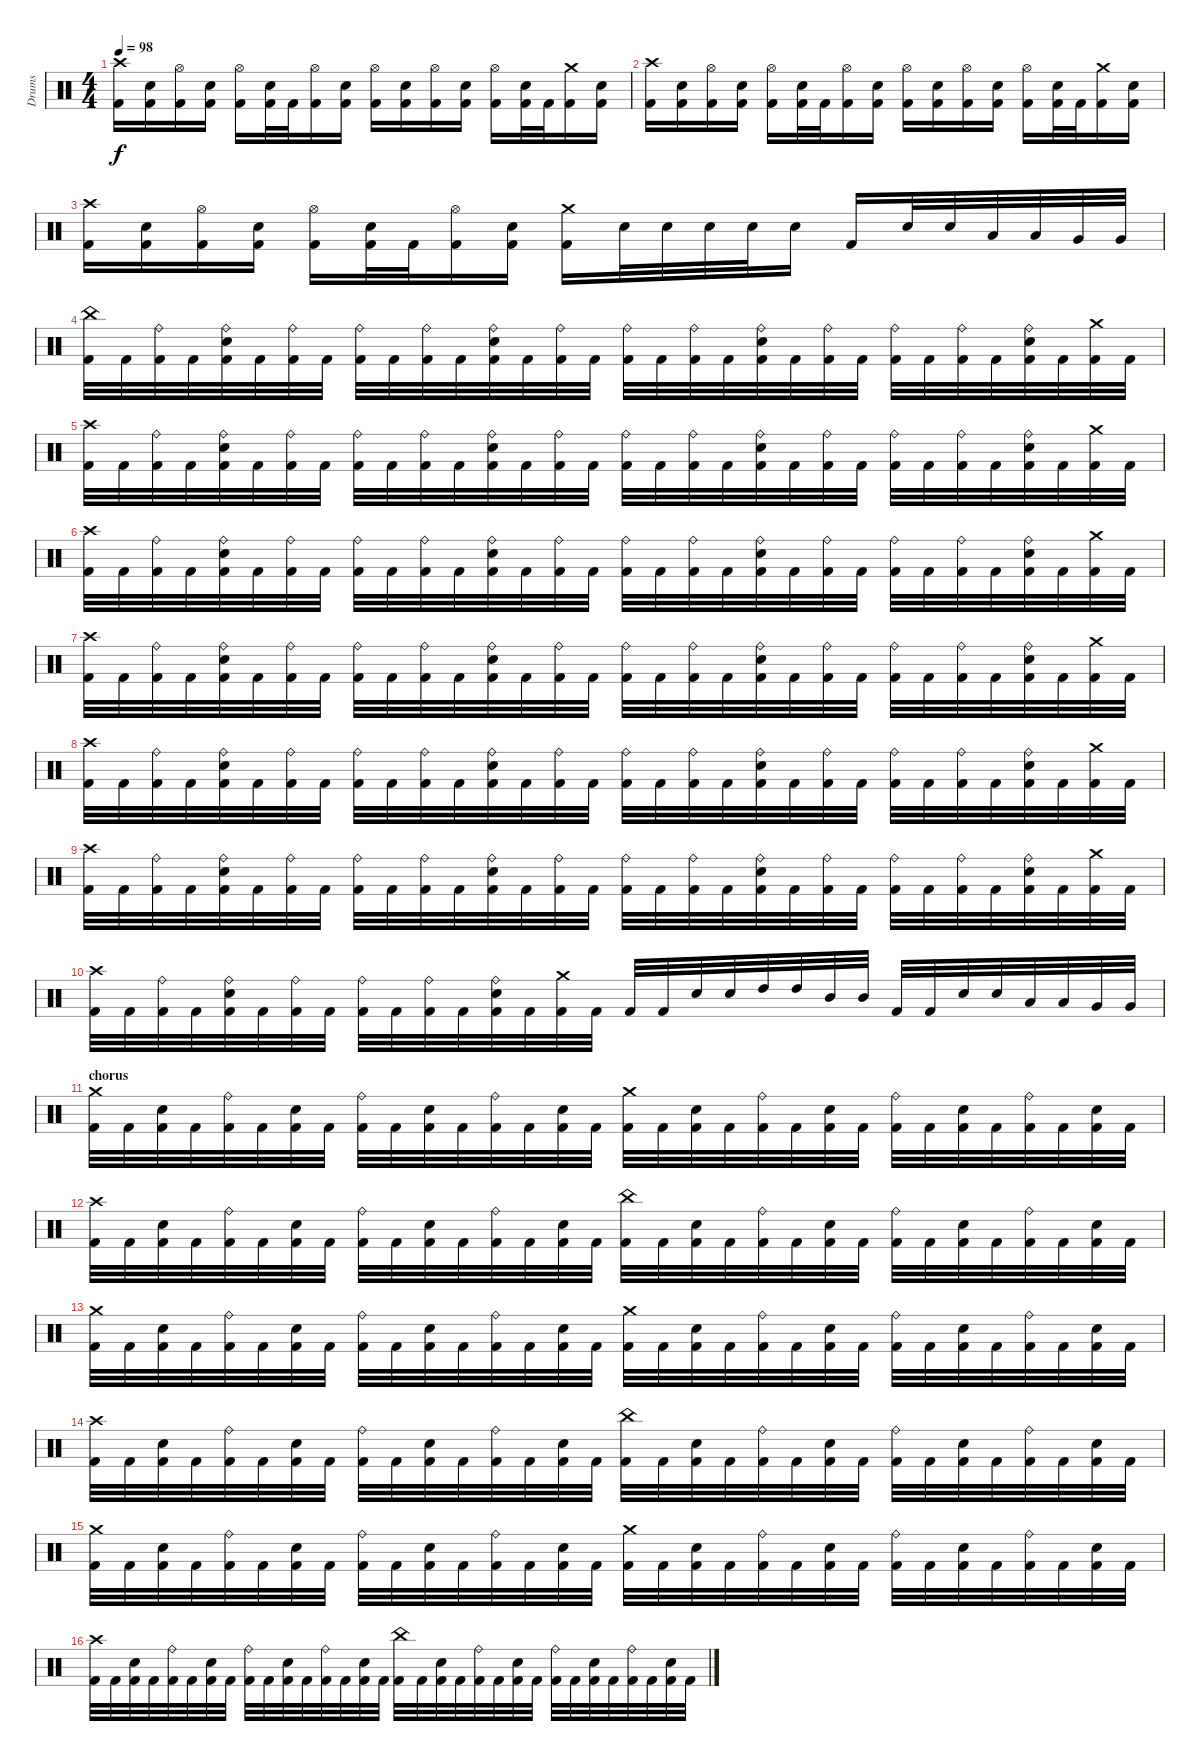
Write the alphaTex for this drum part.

\track ("Drums" "Drums") {instrument percussion}
\staff {score}
\articulation defaults
\ts (4 4)
\tempo 98
\clef neutral
\ks c
("Crash high (hit)" "Kick (hit) 2").16{dy f} ("Electric Snare (hit)" "Kick (hit) 2").16 ("Hi-Hat (open)" "Kick (hit) 2").16 ("Electric Snare (hit)" "Kick (hit) 2").16 ("Hi-Hat (open)" "Kick (hit) 2").16 ("Electric Snare (hit)" "Kick (hit) 2").32 "Kick (hit) 2".32 ("Hi-Hat (open)" "Kick (hit) 2").16 ("Electric Snare (hit)" "Kick (hit) 2").16 ("Hi-Hat (open)" "Kick (hit) 2").16 ("Electric Snare (hit)" "Kick (hit) 2").16 ("Hi-Hat (open)" "Kick (hit) 2").16 ("Electric Snare (hit)" "Kick (hit) 2").16 ("Hi-Hat (open)" "Kick (hit) 2").16 ("Electric Snare (hit)" "Kick (hit) 2").32 "Kick (hit) 2".32 ("Crash medium (hit)" "Kick (hit) 2").16 ("Electric Snare (hit)" "Kick (hit) 2").16 |
("Crash high (hit)" "Kick (hit) 2").16 ("Electric Snare (hit)" "Kick (hit) 2").16 ("Hi-Hat (open)" "Kick (hit) 2").16 ("Electric Snare (hit)" "Kick (hit) 2").16 ("Hi-Hat (open)" "Kick (hit) 2").16 ("Electric Snare (hit)" "Kick (hit) 2").32 "Kick (hit) 2".32 ("Hi-Hat (open)" "Kick (hit) 2").16 ("Electric Snare (hit)" "Kick (hit) 2").16 ("Hi-Hat (open)" "Kick (hit) 2").16 ("Electric Snare (hit)" "Kick (hit) 2").16 ("Hi-Hat (open)" "Kick (hit) 2").16 ("Electric Snare (hit)" "Kick (hit) 2").16 ("Hi-Hat (open)" "Kick (hit) 2").16 ("Electric Snare (hit)" "Kick (hit) 2").32 "Kick (hit) 2".32 ("Crash medium (hit)" "Kick (hit) 2").16 ("Electric Snare (hit)" "Kick (hit) 2").16 |
("Crash high (hit)" "Kick (hit) 2").16 ("Electric Snare (hit)" "Kick (hit) 2").16 ("Hi-Hat (open)" "Kick (hit) 2").16 ("Electric Snare (hit)" "Kick (hit) 2").16 ("Hi-Hat (open)" "Kick (hit) 2").16 ("Electric Snare (hit)" "Kick (hit) 2").32 "Kick (hit) 2".32 ("Hi-Hat (open)" "Kick (hit) 2").16 ("Electric Snare (hit)" "Kick (hit) 2").16 ("Crash medium (hit)" "Kick (hit) 2").16 "Electric Snare (hit)".32 "Electric Snare (hit)".32 "Electric Snare (hit)".32 "Electric Snare (hit)".32 "Electric Snare (hit)".16 "Kick (hit) 2".16 "Electric Snare (hit)".32 "Electric Snare (hit)".32 "Low Tom (hit)".32 "Low Tom (hit)".32 "Very Low Tom (hit)".32 "Very Low Tom (hit)".32 |
("China (hit)" "Kick (hit) 2").32 "Kick (hit) 2".32 ("Ride (bell)" "Kick (hit) 2").32 "Kick (hit) 2".32 ("Ride (bell)" "Electric Snare (hit)" "Kick (hit) 2").32 "Kick (hit) 2".32 ("Ride (bell)" "Kick (hit) 2").32 "Kick (hit) 2".32 ("Ride (bell)" "Kick (hit) 2").32 "Kick (hit) 2".32 ("Ride (bell)" "Kick (hit) 2").32 "Kick (hit) 2".32 ("Ride (bell)" "Electric Snare (hit)" "Kick (hit) 2").32 "Kick (hit) 2".32 ("Ride (bell)" "Kick (hit) 2").32 "Kick (hit) 2".32 ("Ride (bell)" "Kick (hit) 2").32 "Kick (hit) 2".32 ("Ride (bell)" "Kick (hit) 2").32 "Kick (hit) 2".32 ("Ride (bell)" "Electric Snare (hit)" "Kick (hit) 2").32 "Kick (hit) 2".32 ("Ride (bell)" "Kick (hit) 2").32 "Kick (hit) 2".32 ("Ride (bell)" "Kick (hit) 2").32 "Kick (hit) 2".32 ("Ride (bell)" "Kick (hit) 2").32 "Kick (hit) 2".32 ("Ride (bell)" "Electric Snare (hit)" "Kick (hit) 2").32 "Kick (hit) 2".32 ("Crash medium (hit)" "Kick (hit) 2").32 "Kick (hit) 2".32 |
("Crash high (hit)" "Kick (hit) 2").32 "Kick (hit) 2".32 ("Ride (bell)" "Kick (hit) 2").32 "Kick (hit) 2".32 ("Ride (bell)" "Electric Snare (hit)" "Kick (hit) 2").32 "Kick (hit) 2".32 ("Ride (bell)" "Kick (hit) 2").32 "Kick (hit) 2".32 ("Ride (bell)" "Kick (hit) 2").32 "Kick (hit) 2".32 ("Ride (bell)" "Kick (hit) 2").32 "Kick (hit) 2".32 ("Ride (bell)" "Electric Snare (hit)" "Kick (hit) 2").32 "Kick (hit) 2".32 ("Ride (bell)" "Kick (hit) 2").32 "Kick (hit) 2".32 ("Ride (bell)" "Kick (hit) 2").32 "Kick (hit) 2".32 ("Ride (bell)" "Kick (hit) 2").32 "Kick (hit) 2".32 ("Ride (bell)" "Electric Snare (hit)" "Kick (hit) 2").32 "Kick (hit) 2".32 ("Ride (bell)" "Kick (hit) 2").32 "Kick (hit) 2".32 ("Ride (bell)" "Kick (hit) 2").32 "Kick (hit) 2".32 ("Ride (bell)" "Kick (hit) 2").32 "Kick (hit) 2".32 ("Ride (bell)" "Electric Snare (hit)" "Kick (hit) 2").32 "Kick (hit) 2".32 ("Crash medium (hit)" "Kick (hit) 2").32 "Kick (hit) 2".32 |
("Crash high (hit)" "Kick (hit) 2").32 "Kick (hit) 2".32 ("Ride (bell)" "Kick (hit) 2").32 "Kick (hit) 2".32 ("Ride (bell)" "Electric Snare (hit)" "Kick (hit) 2").32 "Kick (hit) 2".32 ("Ride (bell)" "Kick (hit) 2").32 "Kick (hit) 2".32 ("Ride (bell)" "Kick (hit) 2").32 "Kick (hit) 2".32 ("Ride (bell)" "Kick (hit) 2").32 "Kick (hit) 2".32 ("Ride (bell)" "Electric Snare (hit)" "Kick (hit) 2").32 "Kick (hit) 2".32 ("Ride (bell)" "Kick (hit) 2").32 "Kick (hit) 2".32 ("Ride (bell)" "Kick (hit) 2").32 "Kick (hit) 2".32 ("Ride (bell)" "Kick (hit) 2").32 "Kick (hit) 2".32 ("Ride (bell)" "Electric Snare (hit)" "Kick (hit) 2").32 "Kick (hit) 2".32 ("Ride (bell)" "Kick (hit) 2").32 "Kick (hit) 2".32 ("Ride (bell)" "Kick (hit) 2").32 "Kick (hit) 2".32 ("Ride (bell)" "Kick (hit) 2").32 "Kick (hit) 2".32 ("Ride (bell)" "Electric Snare (hit)" "Kick (hit) 2").32 "Kick (hit) 2".32 ("Crash medium (hit)" "Kick (hit) 2").32 "Kick (hit) 2".32 |
("Crash high (hit)" "Kick (hit) 2").32 "Kick (hit) 2".32 ("Ride (bell)" "Kick (hit) 2").32 "Kick (hit) 2".32 ("Ride (bell)" "Electric Snare (hit)" "Kick (hit) 2").32 "Kick (hit) 2".32 ("Ride (bell)" "Kick (hit) 2").32 "Kick (hit) 2".32 ("Ride (bell)" "Kick (hit) 2").32 "Kick (hit) 2".32 ("Ride (bell)" "Kick (hit) 2").32 "Kick (hit) 2".32 ("Ride (bell)" "Electric Snare (hit)" "Kick (hit) 2").32 "Kick (hit) 2".32 ("Ride (bell)" "Kick (hit) 2").32 "Kick (hit) 2".32 ("Ride (bell)" "Kick (hit) 2").32 "Kick (hit) 2".32 ("Ride (bell)" "Kick (hit) 2").32 "Kick (hit) 2".32 ("Ride (bell)" "Electric Snare (hit)" "Kick (hit) 2").32 "Kick (hit) 2".32 ("Ride (bell)" "Kick (hit) 2").32 "Kick (hit) 2".32 ("Ride (bell)" "Kick (hit) 2").32 "Kick (hit) 2".32 ("Ride (bell)" "Kick (hit) 2").32 "Kick (hit) 2".32 ("Ride (bell)" "Electric Snare (hit)" "Kick (hit) 2").32 "Kick (hit) 2".32 ("Crash medium (hit)" "Kick (hit) 2").32 "Kick (hit) 2".32 |
("Crash high (hit)" "Kick (hit) 2").32 "Kick (hit) 2".32 ("Ride (bell)" "Kick (hit) 2").32 "Kick (hit) 2".32 ("Ride (bell)" "Electric Snare (hit)" "Kick (hit) 2").32 "Kick (hit) 2".32 ("Ride (bell)" "Kick (hit) 2").32 "Kick (hit) 2".32 ("Ride (bell)" "Kick (hit) 2").32 "Kick (hit) 2".32 ("Ride (bell)" "Kick (hit) 2").32 "Kick (hit) 2".32 ("Ride (bell)" "Electric Snare (hit)" "Kick (hit) 2").32 "Kick (hit) 2".32 ("Ride (bell)" "Kick (hit) 2").32 "Kick (hit) 2".32 ("Ride (bell)" "Kick (hit) 2").32 "Kick (hit) 2".32 ("Ride (bell)" "Kick (hit) 2").32 "Kick (hit) 2".32 ("Ride (bell)" "Electric Snare (hit)" "Kick (hit) 2").32 "Kick (hit) 2".32 ("Ride (bell)" "Kick (hit) 2").32 "Kick (hit) 2".32 ("Ride (bell)" "Kick (hit) 2").32 "Kick (hit) 2".32 ("Ride (bell)" "Kick (hit) 2").32 "Kick (hit) 2".32 ("Ride (bell)" "Electric Snare (hit)" "Kick (hit) 2").32 "Kick (hit) 2".32 ("Crash medium (hit)" "Kick (hit) 2").32 "Kick (hit) 2".32 |
("Crash high (hit)" "Kick (hit) 2").32 "Kick (hit) 2".32 ("Ride (bell)" "Kick (hit) 2").32 "Kick (hit) 2".32 ("Ride (bell)" "Electric Snare (hit)" "Kick (hit) 2").32 "Kick (hit) 2".32 ("Ride (bell)" "Kick (hit) 2").32 "Kick (hit) 2".32 ("Ride (bell)" "Kick (hit) 2").32 "Kick (hit) 2".32 ("Ride (bell)" "Kick (hit) 2").32 "Kick (hit) 2".32 ("Ride (bell)" "Electric Snare (hit)" "Kick (hit) 2").32 "Kick (hit) 2".32 ("Ride (bell)" "Kick (hit) 2").32 "Kick (hit) 2".32 ("Ride (bell)" "Kick (hit) 2").32 "Kick (hit) 2".32 ("Ride (bell)" "Kick (hit) 2").32 "Kick (hit) 2".32 ("Ride (bell)" "Electric Snare (hit)" "Kick (hit) 2").32 "Kick (hit) 2".32 ("Ride (bell)" "Kick (hit) 2").32 "Kick (hit) 2".32 ("Ride (bell)" "Kick (hit) 2").32 "Kick (hit) 2".32 ("Ride (bell)" "Kick (hit) 2").32 "Kick (hit) 2".32 ("Ride (bell)" "Electric Snare (hit)" "Kick (hit) 2").32 "Kick (hit) 2".32 ("Crash medium (hit)" "Kick (hit) 2").32 "Kick (hit) 2".32 |
("Crash high (hit)" "Kick (hit) 2").32 "Kick (hit) 2".32 ("Ride (bell)" "Kick (hit) 2").32 "Kick (hit) 2".32 ("Ride (bell)" "Electric Snare (hit)" "Kick (hit) 2").32 "Kick (hit) 2".32 ("Ride (bell)" "Kick (hit) 2").32 "Kick (hit) 2".32 ("Ride (bell)" "Kick (hit) 2").32 "Kick (hit) 2".32 ("Ride (bell)" "Kick (hit) 2").32 "Kick (hit) 2".32 ("Ride (bell)" "Electric Snare (hit)" "Kick (hit) 2").32 "Kick (hit) 2".32 ("Crash medium (hit)" "Kick (hit) 2").32 "Kick (hit) 2".32 "Kick (hit) 2".32 "Kick (hit) 2".32 "Electric Snare (hit)".32 "Electric Snare (hit)".32 "High Tom (hit)".32 "High Tom (hit)".32 "Mid Tom (hit)".32 "Mid Tom (hit)".32 "Kick (hit) 2".32 "Kick (hit) 2".32 "Electric Snare (hit)".32 "Electric Snare (hit)".32 "Low Tom (hit)".32 "Low Tom (hit)".32 "Very Low Tom (hit)".32 "Very Low Tom (hit)".32 |
\section ("" "chorus")
("Crash medium (hit)" "Kick (hit) 2").32 "Kick (hit) 2".32 ("Electric Snare (hit)" "Kick (hit) 2").32 "Kick (hit) 2".32 ("Ride (bell)" "Kick (hit) 2").32 "Kick (hit) 2".32 ("Electric Snare (hit)" "Kick (hit) 2").32 "Kick (hit) 2".32 ("Ride (bell)" "Kick (hit) 2").32 "Kick (hit) 2".32 ("Electric Snare (hit)" "Kick (hit) 2").32 "Kick (hit) 2".32 ("Ride (bell)" "Kick (hit) 2").32 "Kick (hit) 2".32 ("Electric Snare (hit)" "Kick (hit) 2").32 "Kick (hit) 2".32 ("Crash medium (hit)" "Kick (hit) 2").32 "Kick (hit) 2".32 ("Electric Snare (hit)" "Kick (hit) 2").32 "Kick (hit) 2".32 ("Ride (bell)" "Kick (hit) 2").32 "Kick (hit) 2".32 ("Electric Snare (hit)" "Kick (hit) 2").32 "Kick (hit) 2".32 ("Ride (bell)" "Kick (hit) 2").32 "Kick (hit) 2".32 ("Electric Snare (hit)" "Kick (hit) 2").32 "Kick (hit) 2".32 ("Ride (bell)" "Kick (hit) 2").32 "Kick (hit) 2".32 ("Electric Snare (hit)" "Kick (hit) 2").32 "Kick (hit) 2".32 |
("Crash high (hit)" "Kick (hit) 2").32 "Kick (hit) 2".32 ("Electric Snare (hit)" "Kick (hit) 2").32 "Kick (hit) 2".32 ("Ride (bell)" "Kick (hit) 2").32 "Kick (hit) 2".32 ("Electric Snare (hit)" "Kick (hit) 2").32 "Kick (hit) 2".32 ("Ride (bell)" "Kick (hit) 2").32 "Kick (hit) 2".32 ("Electric Snare (hit)" "Kick (hit) 2").32 "Kick (hit) 2".32 ("Ride (bell)" "Kick (hit) 2").32 "Kick (hit) 2".32 ("Electric Snare (hit)" "Kick (hit) 2").32 "Kick (hit) 2".32 ("China (hit)" "Kick (hit) 2").32 "Kick (hit) 2".32 ("Electric Snare (hit)" "Kick (hit) 2").32 "Kick (hit) 2".32 ("Ride (bell)" "Kick (hit) 2").32 "Kick (hit) 2".32 ("Electric Snare (hit)" "Kick (hit) 2").32 "Kick (hit) 2".32 ("Ride (bell)" "Kick (hit) 2").32 "Kick (hit) 2".32 ("Electric Snare (hit)" "Kick (hit) 2").32 "Kick (hit) 2".32 ("Ride (bell)" "Kick (hit) 2").32 "Kick (hit) 2".32 ("Electric Snare (hit)" "Kick (hit) 2").32 "Kick (hit) 2".32 |
("Crash medium (hit)" "Kick (hit) 2").32 "Kick (hit) 2".32 ("Electric Snare (hit)" "Kick (hit) 2").32 "Kick (hit) 2".32 ("Ride (bell)" "Kick (hit) 2").32 "Kick (hit) 2".32 ("Electric Snare (hit)" "Kick (hit) 2").32 "Kick (hit) 2".32 ("Ride (bell)" "Kick (hit) 2").32 "Kick (hit) 2".32 ("Electric Snare (hit)" "Kick (hit) 2").32 "Kick (hit) 2".32 ("Ride (bell)" "Kick (hit) 2").32 "Kick (hit) 2".32 ("Electric Snare (hit)" "Kick (hit) 2").32 "Kick (hit) 2".32 ("Crash medium (hit)" "Kick (hit) 2").32 "Kick (hit) 2".32 ("Electric Snare (hit)" "Kick (hit) 2").32 "Kick (hit) 2".32 ("Ride (bell)" "Kick (hit) 2").32 "Kick (hit) 2".32 ("Electric Snare (hit)" "Kick (hit) 2").32 "Kick (hit) 2".32 ("Ride (bell)" "Kick (hit) 2").32 "Kick (hit) 2".32 ("Electric Snare (hit)" "Kick (hit) 2").32 "Kick (hit) 2".32 ("Ride (bell)" "Kick (hit) 2").32 "Kick (hit) 2".32 ("Electric Snare (hit)" "Kick (hit) 2").32 "Kick (hit) 2".32 |
("Crash high (hit)" "Kick (hit) 2").32 "Kick (hit) 2".32 ("Electric Snare (hit)" "Kick (hit) 2").32 "Kick (hit) 2".32 ("Ride (bell)" "Kick (hit) 2").32 "Kick (hit) 2".32 ("Electric Snare (hit)" "Kick (hit) 2").32 "Kick (hit) 2".32 ("Ride (bell)" "Kick (hit) 2").32 "Kick (hit) 2".32 ("Electric Snare (hit)" "Kick (hit) 2").32 "Kick (hit) 2".32 ("Ride (bell)" "Kick (hit) 2").32 "Kick (hit) 2".32 ("Electric Snare (hit)" "Kick (hit) 2").32 "Kick (hit) 2".32 ("China (hit)" "Kick (hit) 2").32 "Kick (hit) 2".32 ("Electric Snare (hit)" "Kick (hit) 2").32 "Kick (hit) 2".32 ("Ride (bell)" "Kick (hit) 2").32 "Kick (hit) 2".32 ("Electric Snare (hit)" "Kick (hit) 2").32 "Kick (hit) 2".32 ("Ride (bell)" "Kick (hit) 2").32 "Kick (hit) 2".32 ("Electric Snare (hit)" "Kick (hit) 2").32 "Kick (hit) 2".32 ("Ride (bell)" "Kick (hit) 2").32 "Kick (hit) 2".32 ("Electric Snare (hit)" "Kick (hit) 2").32 "Kick (hit) 2".32 |
("Crash medium (hit)" "Kick (hit) 2").32 "Kick (hit) 2".32 ("Electric Snare (hit)" "Kick (hit) 2").32 "Kick (hit) 2".32 ("Ride (bell)" "Kick (hit) 2").32 "Kick (hit) 2".32 ("Electric Snare (hit)" "Kick (hit) 2").32 "Kick (hit) 2".32 ("Ride (bell)" "Kick (hit) 2").32 "Kick (hit) 2".32 ("Electric Snare (hit)" "Kick (hit) 2").32 "Kick (hit) 2".32 ("Ride (bell)" "Kick (hit) 2").32 "Kick (hit) 2".32 ("Electric Snare (hit)" "Kick (hit) 2").32 "Kick (hit) 2".32 ("Crash medium (hit)" "Kick (hit) 2").32 "Kick (hit) 2".32 ("Electric Snare (hit)" "Kick (hit) 2").32 "Kick (hit) 2".32 ("Ride (bell)" "Kick (hit) 2").32 "Kick (hit) 2".32 ("Electric Snare (hit)" "Kick (hit) 2").32 "Kick (hit) 2".32 ("Ride (bell)" "Kick (hit) 2").32 "Kick (hit) 2".32 ("Electric Snare (hit)" "Kick (hit) 2").32 "Kick (hit) 2".32 ("Ride (bell)" "Kick (hit) 2").32 "Kick (hit) 2".32 ("Electric Snare (hit)" "Kick (hit) 2").32 "Kick (hit) 2".32 |
("Crash high (hit)" "Kick (hit) 2").32 "Kick (hit) 2".32 ("Electric Snare (hit)" "Kick (hit) 2").32 "Kick (hit) 2".32 ("Ride (bell)" "Kick (hit) 2").32 "Kick (hit) 2".32 ("Electric Snare (hit)" "Kick (hit) 2").32 "Kick (hit) 2".32 ("Ride (bell)" "Kick (hit) 2").32 "Kick (hit) 2".32 ("Electric Snare (hit)" "Kick (hit) 2").32 "Kick (hit) 2".32 ("Ride (bell)" "Kick (hit) 2").32 "Kick (hit) 2".32 ("Electric Snare (hit)" "Kick (hit) 2").32 "Kick (hit) 2".32 ("China (hit)" "Kick (hit) 2").32 "Kick (hit) 2".32 ("Electric Snare (hit)" "Kick (hit) 2").32 "Kick (hit) 2".32 ("Ride (bell)" "Kick (hit) 2").32 "Kick (hit) 2".32 ("Electric Snare (hit)" "Kick (hit) 2").32 "Kick (hit) 2".32 ("Ride (bell)" "Kick (hit) 2").32 "Kick (hit) 2".32 ("Electric Snare (hit)" "Kick (hit) 2").32 "Kick (hit) 2".32 ("Ride (bell)" "Kick (hit) 2").32 "Kick (hit) 2".32 ("Electric Snare (hit)" "Kick (hit) 2").32 "Kick (hit) 2".32
